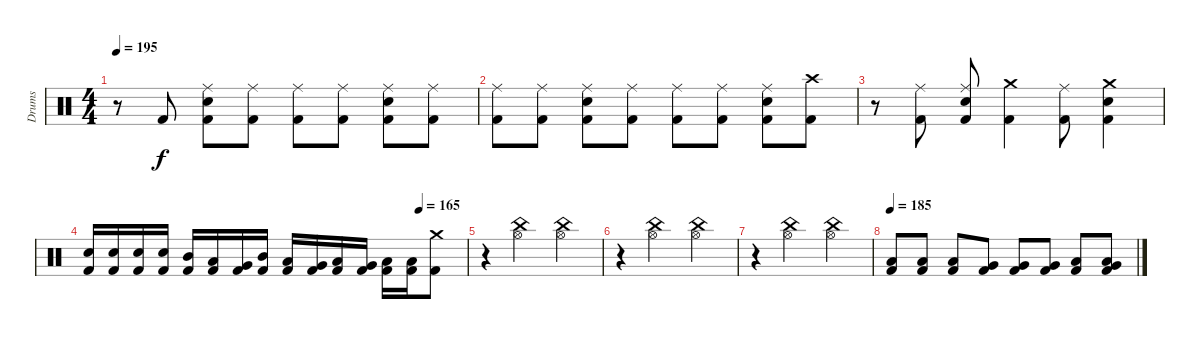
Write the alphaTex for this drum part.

\track ("Drums" "Drums") {instrument percussion}
\staff {score}
\articulation defaults
\ts (4 4)
\tempo 195
\clef neutral
\ks c
r.8{dy f} "Kick (hit) 2".8 ("Ride (middle)" "Electric Snare (hit)" "Kick (hit) 2").8 ("Ride (middle)" "Kick (hit) 2").8 ("Ride (middle)" "Kick (hit) 2").8 ("Ride (middle)" "Kick (hit) 2").8 ("Ride (middle)" "Electric Snare (hit)" "Kick (hit) 2").8 ("Ride (middle)" "Kick (hit) 2").8 |
("Ride (middle)" "Kick (hit) 2").8 ("Ride (middle)" "Kick (hit) 2").8 ("Ride (middle)" "Electric Snare (hit)" "Kick (hit) 2").8 ("Ride (middle)" "Kick (hit) 2").8 ("Ride (middle)" "Kick (hit) 2").8 ("Ride (middle)" "Kick (hit) 2").8 ("Ride (middle)" "Electric Snare (hit)" "Kick (hit) 2").8 ("Crash high (hit)" "Kick (hit) 2").8 |
r.8 ("Ride (middle)" "Kick (hit) 2").8 ("Ride (middle)" "Electric Snare (hit)" "Kick (hit) 2").8 ("Crash medium (hit)" "Kick (hit) 2").4 ("Ride (middle)" "Kick (hit) 2").8 ("Crash medium (hit)" "Electric Snare (hit)" "Kick (hit) 2").4 |
\tempo (165 0.875)
("Electric Snare (hit)" "Kick (hit) 2").16 ("Electric Snare (hit)" "Kick (hit) 2").16 ("Electric Snare (hit)" "Kick (hit) 2").16 ("Electric Snare (hit)" "Kick (hit) 2").16 ("Mid Tom (hit)" "Kick (hit) 2").16 ("Low Tom (hit)" "Kick (hit) 2").16 ("Very Low Tom (hit)" "Kick (hit) 2").16 ("Mid Tom (hit)" "Kick (hit) 2").16 ("Low Tom (hit)" "Kick (hit) 2").16 ("Very Low Tom (hit)" "Kick (hit) 2").16 ("Low Tom (hit)" "Kick (hit) 2").16 ("Very Low Tom (hit)" "Kick (hit) 2").16 ("Low Floor Tom (hit)" "Kick (hit) 2").16 ("Low Floor Tom (hit)" "Kick (hit) 2").16 ("Crash medium (hit)" "Kick (hit) 2").8 |
r.4 ("China (hit)" "Hi-Hat (open)").2 ("China (hit)" "Hi-Hat (open)").4 |
r.4 ("China (hit)" "Hi-Hat (open)").2 ("China (hit)" "Hi-Hat (open)").4 |
r.4 ("China (hit)" "Hi-Hat (open)").2 ("China (hit)" "Hi-Hat (open)").4 |
\tempo 185
("Low Tom (hit)" "Kick (hit) 2").8 ("Low Tom (hit)" "Kick (hit) 2").8 ("Low Tom (hit)" "Kick (hit) 2").8 ("Very Low Tom (hit)" "Kick (hit) 2").8 ("Very Low Tom (hit)" "Kick (hit) 2").8 ("Very Low Tom (hit)" "Kick (hit) 2").8 ("Low Floor Tom (hit)" "Kick (hit) 2").8 ("Low Floor Tom (hit)" "Very Low Tom (hit)" "Kick (hit) 2").8
